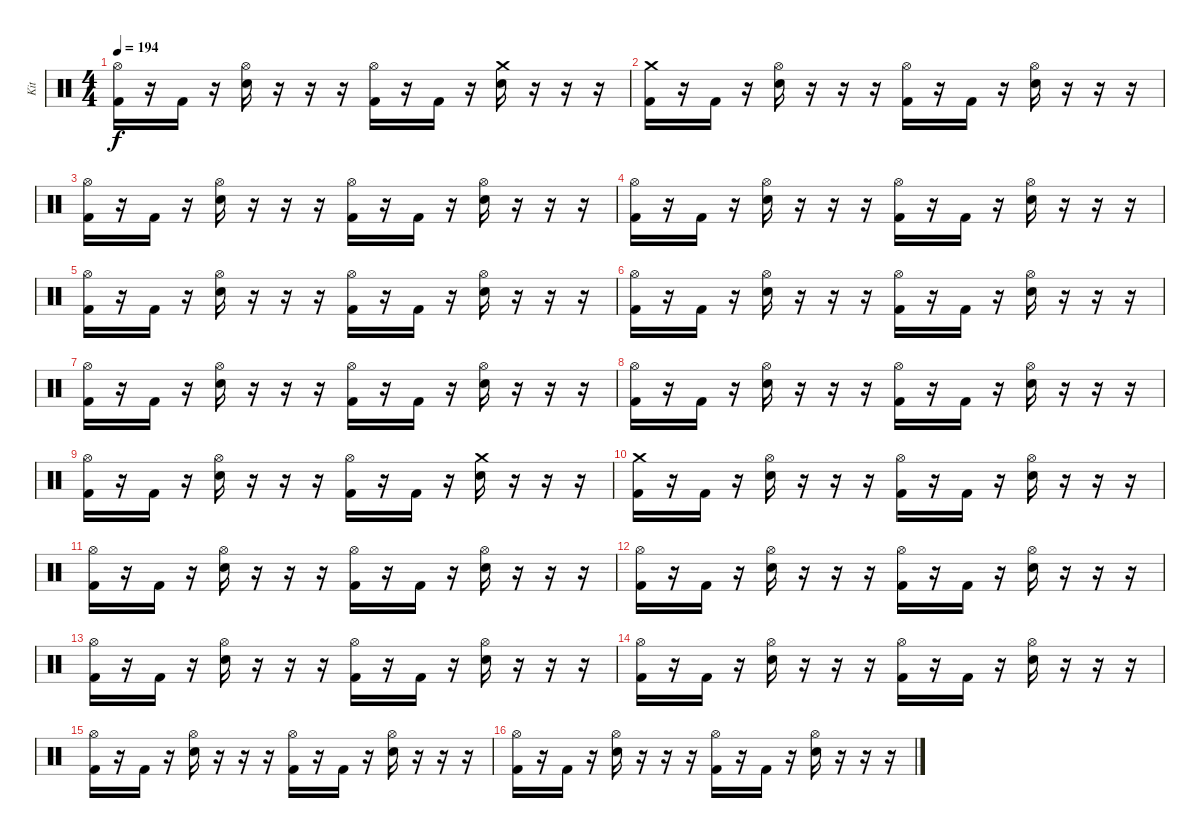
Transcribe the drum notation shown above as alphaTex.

\track ("Kit" "Kit") {instrument percussion}
\staff {score}
\articulation defaults
\ts (4 4)
\tempo 194
\clef neutral
\ks c
("Hi-Hat (open)" "Kick (hit) 2").16{dy f} r.16 "Kick (hit) 2".16 r.16 ("Hi-Hat (open)" "Electric Snare (hit)").16 r.16 r.16 r.16 ("Hi-Hat (open)" "Kick (hit) 2").16 r.16 "Kick (hit) 2".16 r.16 ("Crash medium (hit)" "Electric Snare (hit)").16 r.16 r.16 r.16 |
("Crash medium (hit)" "Kick (hit) 2").16 r.16 "Kick (hit) 2".16 r.16 ("Hi-Hat (open)" "Electric Snare (hit)").16 r.16 r.16 r.16 ("Hi-Hat (open)" "Kick (hit) 2").16 r.16 "Kick (hit) 2".16 r.16 ("Hi-Hat (open)" "Electric Snare (hit)").16 r.16 r.16 r.16 |
("Hi-Hat (open)" "Kick (hit) 2").16 r.16 "Kick (hit) 2".16 r.16 ("Hi-Hat (open)" "Electric Snare (hit)").16 r.16 r.16 r.16 ("Hi-Hat (open)" "Kick (hit) 2").16 r.16 "Kick (hit) 2".16 r.16 ("Hi-Hat (open)" "Electric Snare (hit)").16 r.16 r.16 r.16 |
("Hi-Hat (open)" "Kick (hit) 2").16 r.16 "Kick (hit) 2".16 r.16 ("Hi-Hat (open)" "Electric Snare (hit)").16 r.16 r.16 r.16 ("Hi-Hat (open)" "Kick (hit) 2").16 r.16 "Kick (hit) 2".16 r.16 ("Hi-Hat (open)" "Electric Snare (hit)").16 r.16 r.16 r.16 |
("Hi-Hat (open)" "Kick (hit) 2").16 r.16 "Kick (hit) 2".16 r.16 ("Hi-Hat (open)" "Electric Snare (hit)").16 r.16 r.16 r.16 ("Hi-Hat (open)" "Kick (hit) 2").16 r.16 "Kick (hit) 2".16 r.16 ("Hi-Hat (open)" "Electric Snare (hit)").16 r.16 r.16 r.16 |
("Hi-Hat (open)" "Kick (hit) 2").16 r.16 "Kick (hit) 2".16 r.16 ("Hi-Hat (open)" "Electric Snare (hit)").16 r.16 r.16 r.16 ("Hi-Hat (open)" "Kick (hit) 2").16 r.16 "Kick (hit) 2".16 r.16 ("Hi-Hat (open)" "Electric Snare (hit)").16 r.16 r.16 r.16 |
("Hi-Hat (open)" "Kick (hit) 2").16 r.16 "Kick (hit) 2".16 r.16 ("Hi-Hat (open)" "Electric Snare (hit)").16 r.16 r.16 r.16 ("Hi-Hat (open)" "Kick (hit) 2").16 r.16 "Kick (hit) 2".16 r.16 ("Hi-Hat (open)" "Electric Snare (hit)").16 r.16 r.16 r.16 |
("Hi-Hat (open)" "Kick (hit) 2").16 r.16 "Kick (hit) 2".16 r.16 ("Hi-Hat (open)" "Electric Snare (hit)").16 r.16 r.16 r.16 ("Hi-Hat (open)" "Kick (hit) 2").16 r.16 "Kick (hit) 2".16 r.16 ("Hi-Hat (open)" "Electric Snare (hit)").16 r.16 r.16 r.16 |
("Hi-Hat (open)" "Kick (hit) 2").16 r.16 "Kick (hit) 2".16 r.16 ("Hi-Hat (open)" "Electric Snare (hit)").16 r.16 r.16 r.16 ("Hi-Hat (open)" "Kick (hit) 2").16 r.16 "Kick (hit) 2".16 r.16 ("Crash medium (hit)" "Electric Snare (hit)").16 r.16 r.16 r.16 |
("Crash medium (hit)" "Kick (hit) 2").16 r.16 "Kick (hit) 2".16 r.16 ("Hi-Hat (open)" "Electric Snare (hit)").16 r.16 r.16 r.16 ("Hi-Hat (open)" "Kick (hit) 2").16 r.16 "Kick (hit) 2".16 r.16 ("Hi-Hat (open)" "Electric Snare (hit)").16 r.16 r.16 r.16 |
("Hi-Hat (open)" "Kick (hit) 2").16 r.16 "Kick (hit) 2".16 r.16 ("Hi-Hat (open)" "Electric Snare (hit)").16 r.16 r.16 r.16 ("Hi-Hat (open)" "Kick (hit) 2").16 r.16 "Kick (hit) 2".16 r.16 ("Hi-Hat (open)" "Electric Snare (hit)").16 r.16 r.16 r.16 |
("Hi-Hat (open)" "Kick (hit) 2").16 r.16 "Kick (hit) 2".16 r.16 ("Hi-Hat (open)" "Electric Snare (hit)").16 r.16 r.16 r.16 ("Hi-Hat (open)" "Kick (hit) 2").16 r.16 "Kick (hit) 2".16 r.16 ("Hi-Hat (open)" "Electric Snare (hit)").16 r.16 r.16 r.16 |
("Hi-Hat (open)" "Kick (hit) 2").16 r.16 "Kick (hit) 2".16 r.16 ("Hi-Hat (open)" "Electric Snare (hit)").16 r.16 r.16 r.16 ("Hi-Hat (open)" "Kick (hit) 2").16 r.16 "Kick (hit) 2".16 r.16 ("Hi-Hat (open)" "Electric Snare (hit)").16 r.16 r.16 r.16 |
("Hi-Hat (open)" "Kick (hit) 2").16 r.16 "Kick (hit) 2".16 r.16 ("Hi-Hat (open)" "Electric Snare (hit)").16 r.16 r.16 r.16 ("Hi-Hat (open)" "Kick (hit) 2").16 r.16 "Kick (hit) 2".16 r.16 ("Hi-Hat (open)" "Electric Snare (hit)").16 r.16 r.16 r.16 |
("Hi-Hat (open)" "Kick (hit) 2").16 r.16 "Kick (hit) 2".16 r.16 ("Hi-Hat (open)" "Electric Snare (hit)").16 r.16 r.16 r.16 ("Hi-Hat (open)" "Kick (hit) 2").16 r.16 "Kick (hit) 2".16 r.16 ("Hi-Hat (open)" "Electric Snare (hit)").16 r.16 r.16 r.16 |
("Hi-Hat (open)" "Kick (hit) 2").16 r.16 "Kick (hit) 2".16 r.16 ("Hi-Hat (open)" "Electric Snare (hit)").16 r.16 r.16 r.16 ("Hi-Hat (open)" "Kick (hit) 2").16 r.16 "Kick (hit) 2".16 r.16 ("Hi-Hat (open)" "Electric Snare (hit)").16 r.16 r.16 r.16
